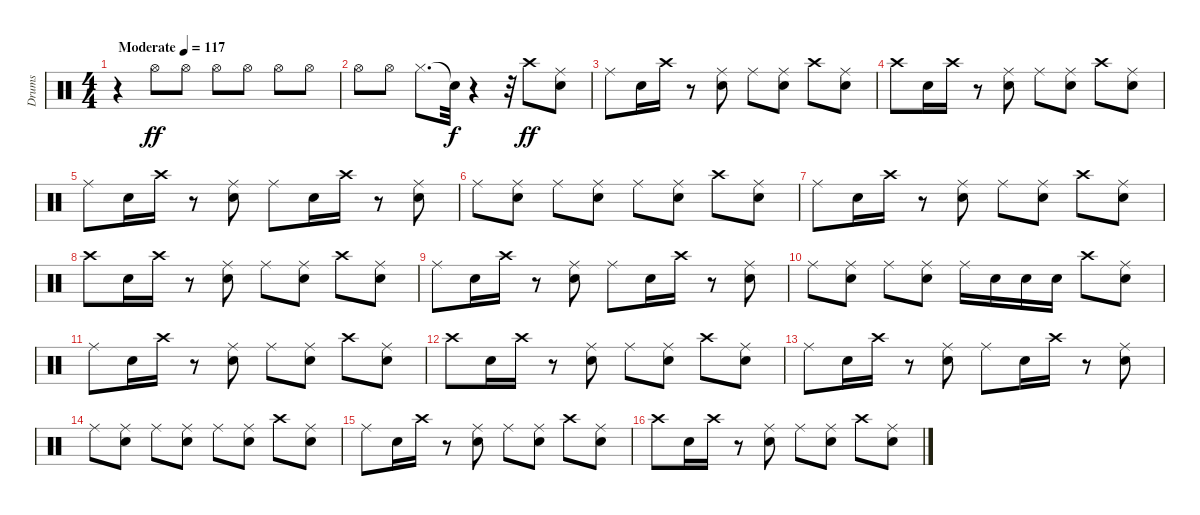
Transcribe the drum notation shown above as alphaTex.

\track ("Drums" "Drums") {instrument percussion}
\staff {score}
\articulation defaults
\ts (4 4)
\tempo (117 "Moderate")
\clef neutral
\ks c
r.4{dy ff} "Hi-Hat (open)".8 "Hi-Hat (open)".8 "Hi-Hat (open)".8 "Hi-Hat (open)".8 "Hi-Hat (open)".8 "Hi-Hat (open)".8 |
"Hi-Hat (open)".8 "Hi-Hat (open)".8 "Hi-Hat (closed)".8{d} "Snare (hit)"{t}.32{dy f} r.4 r.32 "Crash high (hit)".8{dy ff} ("Snare (hit) 2" "Ride (middle)").8 |
"Ride (middle)".8 "Snare (hit) 2".16 "Crash high (hit)".16 r.8 ("Snare (hit) 2" "Ride (middle)").8 "Ride (middle)".8 ("Snare (hit) 2" "Ride (middle)").8 "Crash high (hit)".8 ("Snare (hit) 2" "Ride (middle)").8 |
"Crash high (hit)".8 "Snare (hit) 2".16 "Crash high (hit)".16 r.8 ("Snare (hit) 2" "Ride (middle)").8{volume 14 balance 8} "Ride (middle)".8 ("Snare (hit) 2" "Ride (middle)").8 "Crash high (hit)".8 ("Snare (hit) 2" "Ride (middle)").8 |
"Ride (middle)".8 "Snare (hit) 2".16 "Crash high (hit)".16 r.8 ("Snare (hit) 2" "Ride (middle)").8 "Ride (middle)".8 "Snare (hit) 2".16 "Crash high (hit)".16 r.8 ("Snare (hit) 2" "Ride (middle)").8 |
"Ride (middle)".8 ("Snare (hit) 2" "Ride (middle)").8 "Ride (middle)".8 ("Snare (hit) 2" "Ride (middle)").8 "Ride (middle)".8 ("Snare (hit) 2" "Ride (middle)").8 "Crash high (hit)".8 ("Snare (hit) 2" "Ride (middle)").8 |
"Ride (middle)".8 "Snare (hit) 2".16 "Crash high (hit)".16 r.8 ("Snare (hit) 2" "Ride (middle)").8 "Ride (middle)".8 ("Snare (hit) 2" "Ride (middle)").8 "Crash high (hit)".8 ("Snare (hit) 2" "Ride (middle)").8 |
"Crash high (hit)".8 "Snare (hit) 2".16 "Crash high (hit)".16 r.8 ("Snare (hit) 2" "Ride (middle)").8 "Ride (middle)".8 ("Snare (hit) 2" "Ride (middle)").8 "Crash high (hit)".8 ("Snare (hit) 2" "Ride (middle)").8 |
"Ride (middle)".8 "Snare (hit) 2".16 "Crash high (hit)".16 r.8 ("Snare (hit) 2" "Ride (middle)").8 "Ride (middle)".8 "Snare (hit) 2".16 "Crash high (hit)".16 r.8 ("Snare (hit) 2" "Ride (middle)").8 |
"Ride (middle)".8 ("Snare (hit) 2" "Ride (middle)").8 "Ride (middle)".8 ("Snare (hit) 2" "Ride (middle)").8 "Ride (middle)".16 "Snare (hit) 2".16 "Snare (hit) 2".16 "Snare (hit) 2".16 "Crash high (hit)".8 ("Snare (hit) 2" "Ride (middle)").8 |
"Ride (middle)".8 "Snare (hit) 2".16 "Crash high (hit)".16 r.8 ("Snare (hit) 2" "Ride (middle)").8 "Ride (middle)".8 ("Snare (hit) 2" "Ride (middle)").8 "Crash high (hit)".8 ("Snare (hit) 2" "Ride (middle)").8 |
"Crash high (hit)".8 "Snare (hit) 2".16 "Crash high (hit)".16 r.8 ("Snare (hit) 2" "Ride (middle)").8 "Ride (middle)".8 ("Snare (hit) 2" "Ride (middle)").8 "Crash high (hit)".8 ("Snare (hit) 2" "Ride (middle)").8 |
"Ride (middle)".8 "Snare (hit) 2".16 "Crash high (hit)".16 r.8 ("Snare (hit) 2" "Ride (middle)").8 "Ride (middle)".8 "Snare (hit) 2".16 "Crash high (hit)".16 r.8 ("Snare (hit) 2" "Ride (middle)").8 |
"Ride (middle)".8 ("Snare (hit) 2" "Ride (middle)").8 "Ride (middle)".8 ("Snare (hit) 2" "Ride (middle)").8 "Ride (middle)".8 ("Snare (hit) 2" "Ride (middle)").8 "Crash high (hit)".8 ("Snare (hit) 2" "Ride (middle)").8 |
"Ride (middle)".8 "Snare (hit) 2".16 "Crash high (hit)".16 r.8 ("Snare (hit) 2" "Ride (middle)").8 "Ride (middle)".8 ("Snare (hit) 2" "Ride (middle)").8 "Crash high (hit)".8 ("Snare (hit) 2" "Ride (middle)").8 |
"Crash high (hit)".8 "Snare (hit) 2".16 "Crash high (hit)".16 r.8 ("Snare (hit) 2" "Ride (middle)").8 "Ride (middle)".8 ("Snare (hit) 2" "Ride (middle)").8 "Crash high (hit)".8 ("Snare (hit) 2" "Ride (middle)").8
